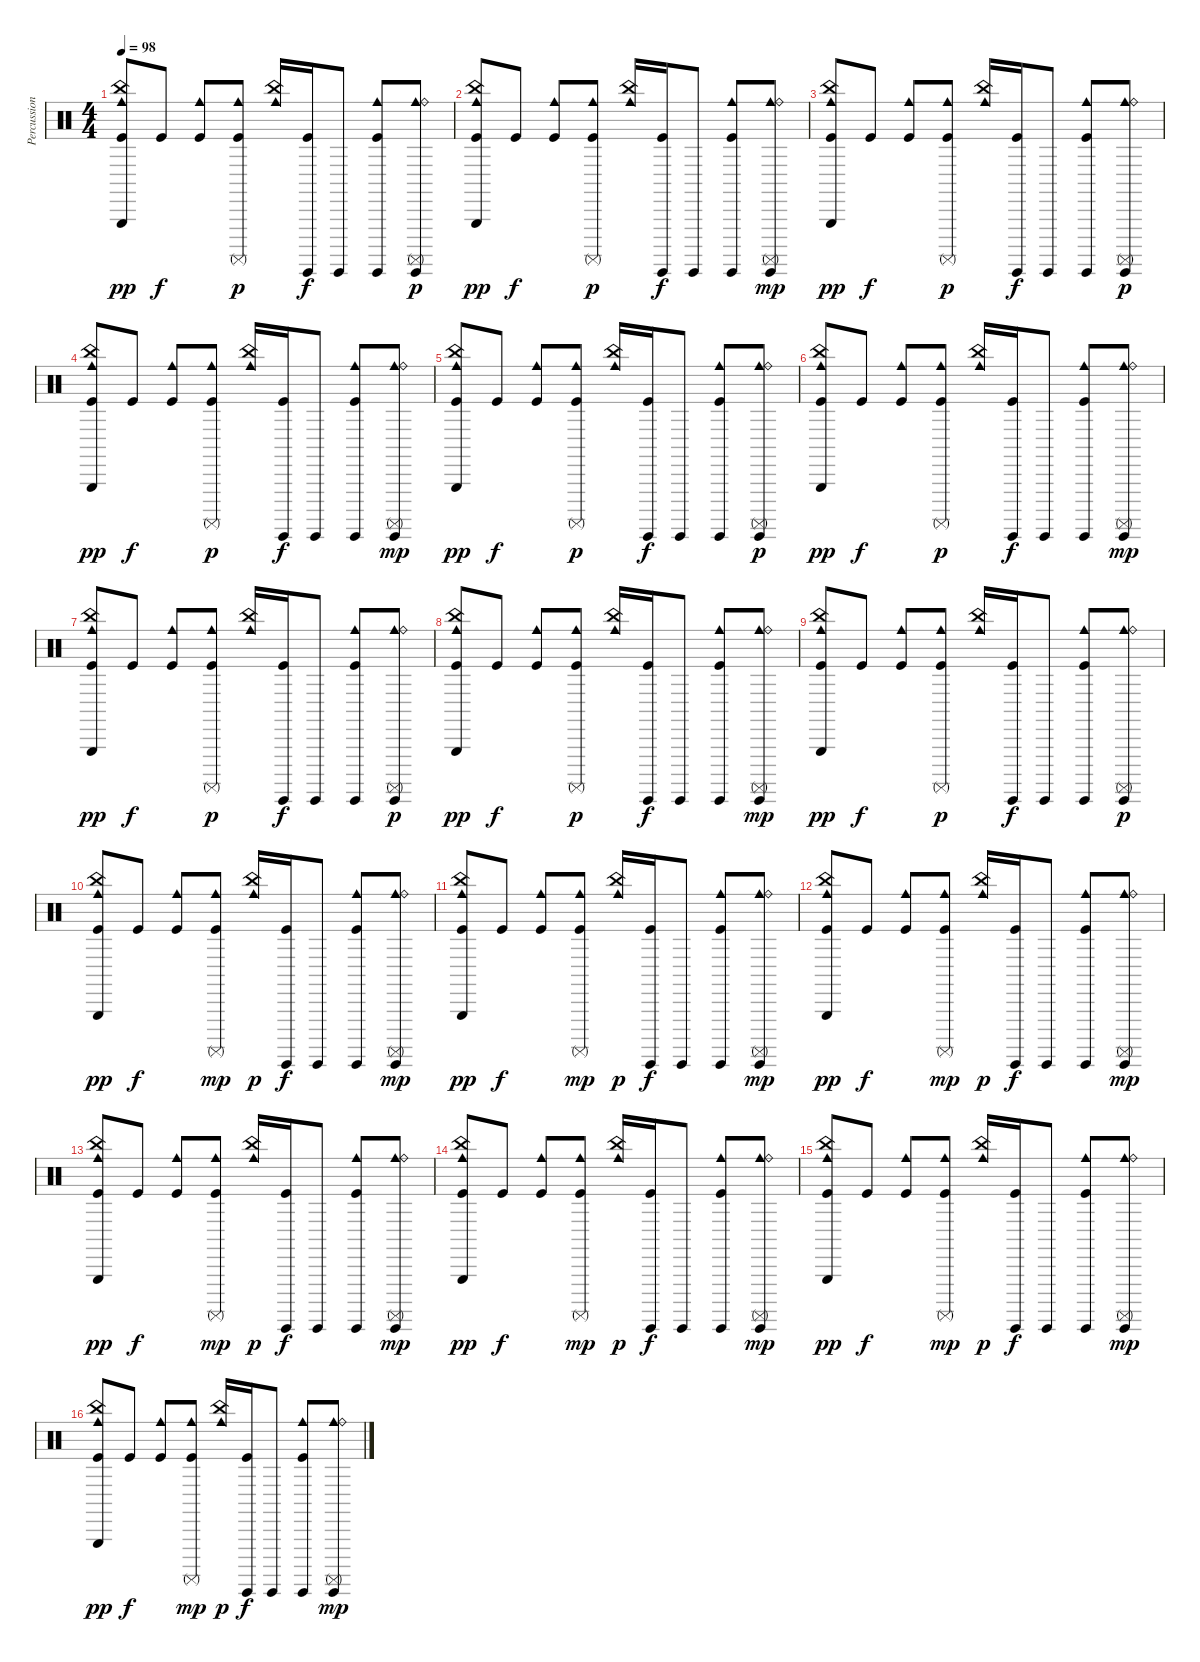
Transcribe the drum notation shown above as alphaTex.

\track ("Percussion" "Percussion") {instrument percussion}
\staff {score}
\articulation defaults
\ts (4 4)
\tempo 98
\clef neutral
\ks c
("Triangle (hit)" "China (hit)" "Cowbell medium (hit)" "Kick (hit)").8{dy pp} "Kick (hit)".8{dy f} ("Cowbell medium (hit)" "Kick (hit)").8 ("Surdo (mute)" "Cowbell medium (hit)" "Kick (hit)").8{dy p} ("China (hit)" "Cowbell medium (hit)").16 ("Guiro (hit)" "Kick (hit)").16{dy f} "Guiro (hit)".8 ("Cowbell medium (hit)" "Guiro (hit)" "Kick (hit)").8 ("Surdo (mute)" "Cowbell medium (hit)" "Guiro (hit)" "Ride (bell)").8{dy p} |
("Triangle (hit)" "China (hit)" "Cowbell medium (hit)" "Kick (hit)").8{dy pp} "Kick (hit)".8{dy f} ("Cowbell medium (hit)" "Kick (hit)").8 ("Surdo (mute)" "Cowbell medium (hit)" "Kick (hit)").8{dy p} ("China (hit)" "Cowbell medium (hit)").16 ("Guiro (hit)" "Kick (hit)").16{dy f} "Guiro (hit)".8 ("Cowbell medium (hit)" "Guiro (hit)" "Kick (hit)").8 ("Surdo (mute)" "Cowbell medium (hit)" "Guiro (hit)" "Ride (bell)").8{dy mp} |
("Triangle (hit)" "China (hit)" "Cowbell medium (hit)" "Kick (hit)").8{dy pp} "Kick (hit)".8{dy f} ("Cowbell medium (hit)" "Kick (hit)").8 ("Surdo (mute)" "Cowbell medium (hit)" "Kick (hit)").8{dy p} ("China (hit)" "Cowbell medium (hit)").16 ("Guiro (hit)" "Kick (hit)").16{dy f} "Guiro (hit)".8 ("Cowbell medium (hit)" "Guiro (hit)" "Kick (hit)").8 ("Surdo (mute)" "Cowbell medium (hit)" "Guiro (hit)" "Ride (bell)").8{dy p} |
("Triangle (hit)" "China (hit)" "Cowbell medium (hit)" "Kick (hit)").8{dy pp} "Kick (hit)".8{dy f} ("Cowbell medium (hit)" "Kick (hit)").8 ("Surdo (mute)" "Cowbell medium (hit)" "Kick (hit)").8{dy p} ("China (hit)" "Cowbell medium (hit)").16 ("Guiro (hit)" "Kick (hit)").16{dy f} "Guiro (hit)".8 ("Cowbell medium (hit)" "Guiro (hit)" "Kick (hit)").8 ("Surdo (mute)" "Cowbell medium (hit)" "Guiro (hit)" "Ride (bell)").8{dy mp} |
("Triangle (hit)" "China (hit)" "Cowbell medium (hit)" "Kick (hit)").8{dy pp} "Kick (hit)".8{dy f} ("Cowbell medium (hit)" "Kick (hit)").8 ("Surdo (mute)" "Cowbell medium (hit)" "Kick (hit)").8{dy p} ("China (hit)" "Cowbell medium (hit)").16 ("Guiro (hit)" "Kick (hit)").16{dy f} "Guiro (hit)".8 ("Cowbell medium (hit)" "Guiro (hit)" "Kick (hit)").8 ("Surdo (mute)" "Cowbell medium (hit)" "Guiro (hit)" "Ride (bell)").8{dy p} |
("Triangle (hit)" "China (hit)" "Cowbell medium (hit)" "Kick (hit)").8{dy pp} "Kick (hit)".8{dy f} ("Cowbell medium (hit)" "Kick (hit)").8 ("Surdo (mute)" "Cowbell medium (hit)" "Kick (hit)").8{dy p} ("China (hit)" "Cowbell medium (hit)").16 ("Guiro (hit)" "Kick (hit)").16{dy f} "Guiro (hit)".8 ("Cowbell medium (hit)" "Guiro (hit)" "Kick (hit)").8 ("Surdo (mute)" "Cowbell medium (hit)" "Guiro (hit)" "Ride (bell)").8{dy mp} |
("Triangle (hit)" "China (hit)" "Cowbell medium (hit)" "Kick (hit)").8{dy pp} "Kick (hit)".8{dy f} ("Cowbell medium (hit)" "Kick (hit)").8 ("Surdo (mute)" "Cowbell medium (hit)" "Kick (hit)").8{dy p} ("China (hit)" "Cowbell medium (hit)").16 ("Guiro (hit)" "Kick (hit)").16{dy f} "Guiro (hit)".8 ("Cowbell medium (hit)" "Guiro (hit)" "Kick (hit)").8 ("Surdo (mute)" "Cowbell medium (hit)" "Guiro (hit)" "Ride (bell)").8{dy p} |
("Triangle (hit)" "China (hit)" "Cowbell medium (hit)" "Kick (hit)").8{dy pp} "Kick (hit)".8{dy f} ("Cowbell medium (hit)" "Kick (hit)").8 ("Surdo (mute)" "Cowbell medium (hit)" "Kick (hit)").8{dy p} ("China (hit)" "Cowbell medium (hit)").16 ("Guiro (hit)" "Kick (hit)").16{dy f} "Guiro (hit)".8 ("Cowbell medium (hit)" "Guiro (hit)" "Kick (hit)").8 ("Surdo (mute)" "Cowbell medium (hit)" "Guiro (hit)" "Ride (bell)").8{dy mp} |
("Triangle (hit)" "China (hit)" "Cowbell medium (hit)" "Kick (hit)").8{dy pp} "Kick (hit)".8{dy f} ("Cowbell medium (hit)" "Kick (hit)").8 ("Surdo (mute)" "Cowbell medium (hit)" "Kick (hit)").8{dy p} ("China (hit)" "Cowbell medium (hit)").16 ("Guiro (hit)" "Kick (hit)").16{dy f} "Guiro (hit)".8 ("Cowbell medium (hit)" "Guiro (hit)" "Kick (hit)").8 ("Surdo (mute)" "Cowbell medium (hit)" "Guiro (hit)" "Ride (bell)").8{dy p} |
("Triangle (hit)" "China (hit)" "Cowbell medium (hit)" "Kick (hit)").8{dy pp} "Kick (hit)".8{dy f} ("Cowbell medium (hit)" "Kick (hit)").8 ("Surdo (mute)" "Cowbell medium (hit)" "Kick (hit)").8{dy mp} ("China (hit)" "Cowbell medium (hit)").16{dy p} ("Guiro (hit)" "Kick (hit)").16{dy f} "Guiro (hit)".8 ("Cowbell medium (hit)" "Guiro (hit)" "Kick (hit)").8 ("Surdo (mute)" "Cowbell medium (hit)" "Guiro (hit)" "Ride (bell)").8{dy mp} |
("Triangle (hit)" "China (hit)" "Cowbell medium (hit)" "Kick (hit)").8{dy pp} "Kick (hit)".8{dy f} ("Cowbell medium (hit)" "Kick (hit)").8 ("Surdo (mute)" "Cowbell medium (hit)" "Kick (hit)").8{dy mp} ("China (hit)" "Cowbell medium (hit)").16{dy p} ("Guiro (hit)" "Kick (hit)").16{dy f} "Guiro (hit)".8 ("Cowbell medium (hit)" "Guiro (hit)" "Kick (hit)").8 ("Surdo (mute)" "Cowbell medium (hit)" "Guiro (hit)" "Ride (bell)").8{dy mp} |
("Triangle (hit)" "China (hit)" "Cowbell medium (hit)" "Kick (hit)").8{dy pp} "Kick (hit)".8{dy f} ("Cowbell medium (hit)" "Kick (hit)").8 ("Surdo (mute)" "Cowbell medium (hit)" "Kick (hit)").8{dy mp} ("China (hit)" "Cowbell medium (hit)").16{dy p} ("Guiro (hit)" "Kick (hit)").16{dy f} "Guiro (hit)".8 ("Cowbell medium (hit)" "Guiro (hit)" "Kick (hit)").8 ("Surdo (mute)" "Cowbell medium (hit)" "Guiro (hit)" "Ride (bell)").8{dy mp} |
("Triangle (hit)" "China (hit)" "Cowbell medium (hit)" "Kick (hit)").8{dy pp} "Kick (hit)".8{dy f} ("Cowbell medium (hit)" "Kick (hit)").8 ("Surdo (mute)" "Cowbell medium (hit)" "Kick (hit)").8{dy mp} ("China (hit)" "Cowbell medium (hit)").16{dy p} ("Guiro (hit)" "Kick (hit)").16{dy f} "Guiro (hit)".8 ("Cowbell medium (hit)" "Guiro (hit)" "Kick (hit)").8 ("Surdo (mute)" "Cowbell medium (hit)" "Guiro (hit)" "Ride (bell)").8{dy mp} |
("Triangle (hit)" "China (hit)" "Cowbell medium (hit)" "Kick (hit)").8{dy pp} "Kick (hit)".8{dy f} ("Cowbell medium (hit)" "Kick (hit)").8 ("Surdo (mute)" "Cowbell medium (hit)" "Kick (hit)").8{dy mp} ("China (hit)" "Cowbell medium (hit)").16{dy p} ("Guiro (hit)" "Kick (hit)").16{dy f} "Guiro (hit)".8 ("Cowbell medium (hit)" "Guiro (hit)" "Kick (hit)").8 ("Surdo (mute)" "Cowbell medium (hit)" "Guiro (hit)" "Ride (bell)").8{dy mp} |
("Triangle (hit)" "China (hit)" "Cowbell medium (hit)" "Kick (hit)").8{dy pp} "Kick (hit)".8{dy f} ("Cowbell medium (hit)" "Kick (hit)").8 ("Surdo (mute)" "Cowbell medium (hit)" "Kick (hit)").8{dy mp} ("China (hit)" "Cowbell medium (hit)").16{dy p} ("Guiro (hit)" "Kick (hit)").16{dy f} "Guiro (hit)".8 ("Cowbell medium (hit)" "Guiro (hit)" "Kick (hit)").8 ("Surdo (mute)" "Cowbell medium (hit)" "Guiro (hit)" "Ride (bell)").8{dy mp} |
("Triangle (hit)" "China (hit)" "Cowbell medium (hit)" "Kick (hit)").8{dy pp} "Kick (hit)".8{dy f} ("Cowbell medium (hit)" "Kick (hit)").8 ("Surdo (mute)" "Cowbell medium (hit)" "Kick (hit)").8{dy mp} ("China (hit)" "Cowbell medium (hit)").16{dy p} ("Guiro (hit)" "Kick (hit)").16{dy f} "Guiro (hit)".8 ("Cowbell medium (hit)" "Guiro (hit)" "Kick (hit)").8 ("Surdo (mute)" "Cowbell medium (hit)" "Guiro (hit)" "Ride (bell)").8{dy mp}
